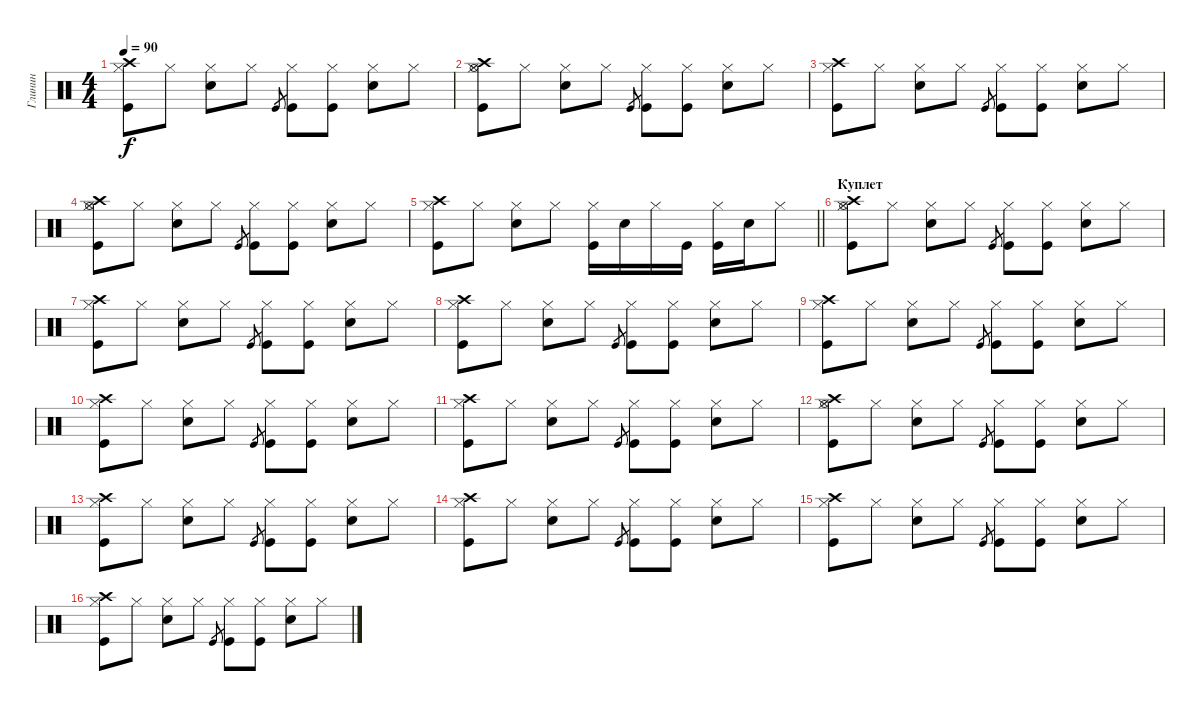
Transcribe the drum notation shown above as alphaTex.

\track ("Глинин" "Глинин") {instrument percussion}
\staff {score}
\articulation defaults
\ts (4 4)
\tempo 90
\clef neutral
\ks c
("Hi-Hat (closed)" "Crash high (hit)" "Kick (hit)").8{dy f} "Hi-Hat (closed)".8 ("Hi-Hat (closed)" "Snare (hit) 2").8 "Hi-Hat (closed)".8 "Kick (hit)".8{gr} ("Hi-Hat (closed)" "Kick (hit)").8 ("Hi-Hat (closed)" "Kick (hit)").8 ("Hi-Hat (closed)" "Snare (hit) 2").8 "Hi-Hat (closed)".8 |
("Hi-Hat (closed)" "Crash high (hit)" "Kick (hit)" "Hi-Hat (open)").8 "Hi-Hat (closed)".8 ("Hi-Hat (closed)" "Snare (hit) 2").8 "Hi-Hat (closed)".8 "Kick (hit)".8{gr} ("Hi-Hat (closed)" "Kick (hit)").8 ("Hi-Hat (closed)" "Kick (hit)").8 ("Hi-Hat (closed)" "Snare (hit) 2").8 "Hi-Hat (closed)".8 |
("Hi-Hat (closed)" "Crash high (hit)" "Kick (hit)").8 "Hi-Hat (closed)".8 ("Hi-Hat (closed)" "Snare (hit) 2").8 "Hi-Hat (closed)".8 "Kick (hit)".8{gr} ("Hi-Hat (closed)" "Kick (hit)").8 ("Hi-Hat (closed)" "Kick (hit)").8 ("Hi-Hat (closed)" "Snare (hit) 2").8 "Hi-Hat (closed)".8 |
("Hi-Hat (closed)" "Crash high (hit)" "Kick (hit)" "Hi-Hat (open)").8 "Hi-Hat (closed)".8 ("Hi-Hat (closed)" "Snare (hit) 2").8 "Hi-Hat (closed)".8 "Kick (hit)".8{gr} ("Hi-Hat (closed)" "Kick (hit)").8 ("Hi-Hat (closed)" "Kick (hit)").8 ("Hi-Hat (closed)" "Snare (hit) 2").8 "Hi-Hat (closed)".8 |
\barLineRight lightlight
("Hi-Hat (closed)" "Crash high (hit)" "Kick (hit)").8 "Hi-Hat (closed)".8 ("Hi-Hat (closed)" "Snare (hit) 2").8 "Hi-Hat (closed)".8 ("Hi-Hat (closed)" "Kick (hit)").16 "Snare (hit) 2".16 "Hi-Hat (closed)".16 "Kick (hit)".16 ("Hi-Hat (closed)" "Kick (hit)").16 "Snare (hit) 2".16 "Hi-Hat (closed)".8 |
\section ("" "Куплет")
("Hi-Hat (closed)" "Crash high (hit)" "Kick (hit)" "Hi-Hat (open)").8 "Hi-Hat (closed)".8 ("Hi-Hat (closed)" "Snare (hit) 2").8 "Hi-Hat (closed)".8 "Kick (hit)".8{gr} ("Hi-Hat (closed)" "Kick (hit)").8 ("Hi-Hat (closed)" "Kick (hit)").8 ("Hi-Hat (closed)" "Snare (hit) 2").8 "Hi-Hat (closed)".8 |
("Hi-Hat (closed)" "Crash high (hit)" "Kick (hit)").8 "Hi-Hat (closed)".8 ("Hi-Hat (closed)" "Snare (hit) 2").8 "Hi-Hat (closed)".8 "Kick (hit)".8{gr} ("Hi-Hat (closed)" "Kick (hit)").8 ("Hi-Hat (closed)" "Kick (hit)").8 ("Hi-Hat (closed)" "Snare (hit) 2").8 "Hi-Hat (closed)".8 |
("Hi-Hat (closed)" "Crash high (hit)" "Kick (hit)").8 "Hi-Hat (closed)".8 ("Hi-Hat (closed)" "Snare (hit) 2").8 "Hi-Hat (closed)".8 "Kick (hit)".8{gr} ("Hi-Hat (closed)" "Kick (hit)").8 ("Hi-Hat (closed)" "Kick (hit)").8 ("Hi-Hat (closed)" "Snare (hit) 2").8 "Hi-Hat (closed)".8 |
("Hi-Hat (closed)" "Crash high (hit)" "Kick (hit)").8 "Hi-Hat (closed)".8 ("Hi-Hat (closed)" "Snare (hit) 2").8 "Hi-Hat (closed)".8 "Kick (hit)".8{gr} ("Hi-Hat (closed)" "Kick (hit)").8 ("Hi-Hat (closed)" "Kick (hit)").8 ("Hi-Hat (closed)" "Snare (hit) 2").8 "Hi-Hat (closed)".8 |
("Hi-Hat (closed)" "Crash high (hit)" "Kick (hit)").8 "Hi-Hat (closed)".8 ("Hi-Hat (closed)" "Snare (hit) 2").8 "Hi-Hat (closed)".8 "Kick (hit)".8{gr} ("Hi-Hat (closed)" "Kick (hit)").8 ("Hi-Hat (closed)" "Kick (hit)").8 ("Hi-Hat (closed)" "Snare (hit) 2").8 "Hi-Hat (closed)".8 |
("Hi-Hat (closed)" "Crash high (hit)" "Kick (hit)").8 "Hi-Hat (closed)".8 ("Hi-Hat (closed)" "Snare (hit) 2").8 "Hi-Hat (closed)".8 "Kick (hit)".8{gr} ("Hi-Hat (closed)" "Kick (hit)").8 ("Hi-Hat (closed)" "Kick (hit)").8 ("Hi-Hat (closed)" "Snare (hit) 2").8 "Hi-Hat (closed)".8 |
("Hi-Hat (closed)" "Crash high (hit)" "Kick (hit)" "Hi-Hat (open)").8 "Hi-Hat (closed)".8 ("Hi-Hat (closed)" "Snare (hit) 2").8 "Hi-Hat (closed)".8 "Kick (hit)".8{gr} ("Hi-Hat (closed)" "Kick (hit)").8 ("Hi-Hat (closed)" "Kick (hit)").8 ("Hi-Hat (closed)" "Snare (hit) 2").8 "Hi-Hat (closed)".8 |
("Hi-Hat (closed)" "Crash high (hit)" "Kick (hit)").8 "Hi-Hat (closed)".8 ("Hi-Hat (closed)" "Snare (hit) 2").8 "Hi-Hat (closed)".8 "Kick (hit)".8{gr} ("Hi-Hat (closed)" "Kick (hit)").8 ("Hi-Hat (closed)" "Kick (hit)").8 ("Hi-Hat (closed)" "Snare (hit) 2").8 "Hi-Hat (closed)".8 |
("Hi-Hat (closed)" "Crash high (hit)" "Kick (hit)").8 "Hi-Hat (closed)".8 ("Hi-Hat (closed)" "Snare (hit) 2").8 "Hi-Hat (closed)".8 "Kick (hit)".8{gr} ("Hi-Hat (closed)" "Kick (hit)").8 ("Hi-Hat (closed)" "Kick (hit)").8 ("Hi-Hat (closed)" "Snare (hit) 2").8 "Hi-Hat (closed)".8 |
("Hi-Hat (closed)" "Crash high (hit)" "Kick (hit)").8 "Hi-Hat (closed)".8 ("Hi-Hat (closed)" "Snare (hit) 2").8 "Hi-Hat (closed)".8 "Kick (hit)".8{gr} ("Hi-Hat (closed)" "Kick (hit)").8 ("Hi-Hat (closed)" "Kick (hit)").8 ("Hi-Hat (closed)" "Snare (hit) 2").8 "Hi-Hat (closed)".8 |
("Hi-Hat (closed)" "Crash high (hit)" "Kick (hit)").8 "Hi-Hat (closed)".8 ("Hi-Hat (closed)" "Snare (hit) 2").8 "Hi-Hat (closed)".8 "Kick (hit)".8{gr} ("Hi-Hat (closed)" "Kick (hit)").8 ("Hi-Hat (closed)" "Kick (hit)").8 ("Hi-Hat (closed)" "Snare (hit) 2").8 "Hi-Hat (closed)".8
